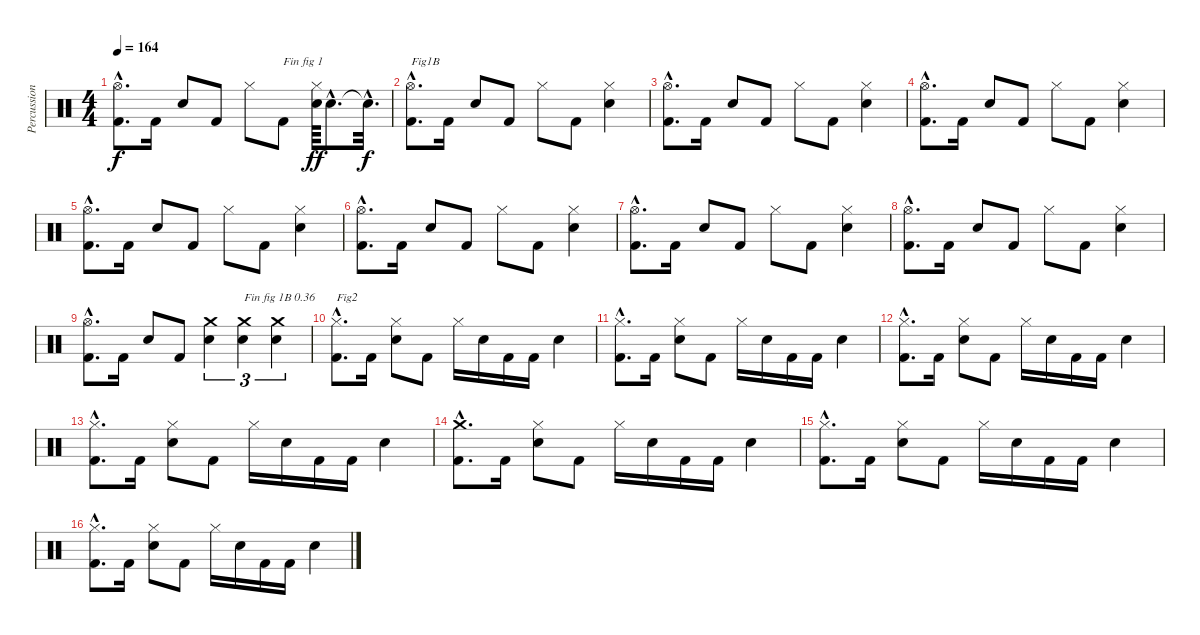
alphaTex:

\track ("Percussions" "Percussion") {instrument percussion}
\staff {score}
\articulation defaults
\ts (4 4)
\tempo 164
\clef neutral
\ks c
("Kick (hit) 2"{hac} "Hi-Hat (open)"{hac}).8{d dy f} "Kick (hit) 2".16 "Electric Snare (hit)".8 "Kick (hit) 2".8 "Hi-Hat (closed)".8 "Kick (hit) 2".8{txt "Fin fig 1"} ("Electric Snare (hit)" "Hi-Hat (closed)").64{dy ff} "Electric Snare (hit)"{hac}.8{d} "Snare (hit)"{hac t}.32{d dy f} |
("Kick (hit) 2"{hac} "Hi-Hat (open)"{hac}).8{d txt "Fig1B"} "Kick (hit) 2".16 "Electric Snare (hit)".8 "Kick (hit) 2".8 "Hi-Hat (closed)".8 "Kick (hit) 2".8 ("Electric Snare (hit)" "Hi-Hat (closed)").4 |
("Kick (hit) 2"{hac} "Hi-Hat (open)"{hac}).8{d} "Kick (hit) 2".16 "Electric Snare (hit)".8 "Kick (hit) 2".8 "Hi-Hat (closed)".8 "Kick (hit) 2".8 ("Electric Snare (hit)" "Hi-Hat (closed)").4 |
("Kick (hit) 2"{hac} "Hi-Hat (open)"{hac}).8{d} "Kick (hit) 2".16 "Electric Snare (hit)".8 "Kick (hit) 2".8 "Hi-Hat (closed)".8 "Kick (hit) 2".8 ("Electric Snare (hit)" "Hi-Hat (closed)").4 |
("Kick (hit) 2"{hac} "Hi-Hat (open)"{hac}).8{d} "Kick (hit) 2".16 "Electric Snare (hit)".8 "Kick (hit) 2".8 "Hi-Hat (closed)".8 "Kick (hit) 2".8 ("Electric Snare (hit)" "Hi-Hat (closed)").4 |
("Kick (hit) 2"{hac} "Hi-Hat (open)"{hac}).8{d} "Kick (hit) 2".16 "Electric Snare (hit)".8 "Kick (hit) 2".8 "Hi-Hat (closed)".8 "Kick (hit) 2".8 ("Electric Snare (hit)" "Hi-Hat (closed)").4 |
("Kick (hit) 2"{hac} "Hi-Hat (open)"{hac}).8{d} "Kick (hit) 2".16 "Electric Snare (hit)".8 "Kick (hit) 2".8 "Hi-Hat (closed)".8 "Kick (hit) 2".8 ("Electric Snare (hit)" "Hi-Hat (closed)").4 |
("Kick (hit) 2"{hac} "Hi-Hat (open)"{hac}).8{d} "Kick (hit) 2".16 "Electric Snare (hit)".8 "Kick (hit) 2".8 "Hi-Hat (closed)".8 "Kick (hit) 2".8 ("Electric Snare (hit)" "Hi-Hat (closed)").4 |
("Kick (hit) 2"{hac} "Hi-Hat (open)"{hac}).8{d} "Kick (hit) 2".16 "Electric Snare (hit)".8 "Kick (hit) 2".8 ("Electric Snare (hit)" "Crash medium (hit)").4{tu (3 2)} ("Electric Snare (hit)" "Crash medium (hit)").4{tu (3 2) txt "Fin fig 1B 0.36"} ("Electric Snare (hit)" "Crash medium (hit)").4{tu (3 2)} |
("Kick (hit) 2"{hac} "Hi-Hat (closed)"{hac}).8{d txt "Fig2"} "Kick (hit) 2".16 ("Electric Snare (hit)" "Hi-Hat (closed)").8 "Kick (hit) 2".8 "Hi-Hat (closed)".16 "Electric Snare (hit)".16 "Kick (hit) 2".16 "Kick (hit) 2".16 "Electric Snare (hit)".4 |
("Kick (hit) 2"{hac} "Hi-Hat (closed)"{hac}).8{d} "Kick (hit) 2".16 ("Electric Snare (hit)" "Hi-Hat (closed)").8 "Kick (hit) 2".8 "Hi-Hat (closed)".16 "Electric Snare (hit)".16 "Kick (hit) 2".16 "Kick (hit) 2".16 "Electric Snare (hit)".4 |
("Kick (hit) 2"{hac} "Hi-Hat (closed)"{hac}).8{d} "Kick (hit) 2".16 ("Electric Snare (hit)" "Hi-Hat (closed)").8 "Kick (hit) 2".8 "Hi-Hat (closed)".16 "Electric Snare (hit)".16 "Kick (hit) 2".16 "Kick (hit) 2".16 "Electric Snare (hit)".4 |
("Kick (hit) 2"{hac} "Hi-Hat (closed)"{hac}).8{d} "Kick (hit) 2".16 ("Electric Snare (hit)" "Hi-Hat (closed)").8 "Kick (hit) 2".8 "Hi-Hat (closed)".16 "Electric Snare (hit)".16 "Kick (hit) 2".16 "Kick (hit) 2".16 "Electric Snare (hit)".4 |
("Kick (hit) 2"{hac} "Crash medium (hit)"{hac}).8{d} "Kick (hit) 2".16 ("Electric Snare (hit)" "Hi-Hat (closed)").8 "Kick (hit) 2".8 "Hi-Hat (closed)".16 "Electric Snare (hit)".16 "Kick (hit) 2".16 "Kick (hit) 2".16 "Electric Snare (hit)".4 |
("Kick (hit) 2"{hac} "Hi-Hat (closed)"{hac}).8{d} "Kick (hit) 2".16 ("Electric Snare (hit)" "Hi-Hat (closed)").8 "Kick (hit) 2".8 "Hi-Hat (closed)".16 "Electric Snare (hit)".16 "Kick (hit) 2".16 "Kick (hit) 2".16 "Electric Snare (hit)".4 |
("Kick (hit) 2"{hac} "Hi-Hat (closed)"{hac}).8{d} "Kick (hit) 2".16 ("Electric Snare (hit)" "Hi-Hat (closed)").8 "Kick (hit) 2".8 "Hi-Hat (closed)".16 "Electric Snare (hit)".16 "Kick (hit) 2".16 "Kick (hit) 2".16 "Electric Snare (hit)".4
